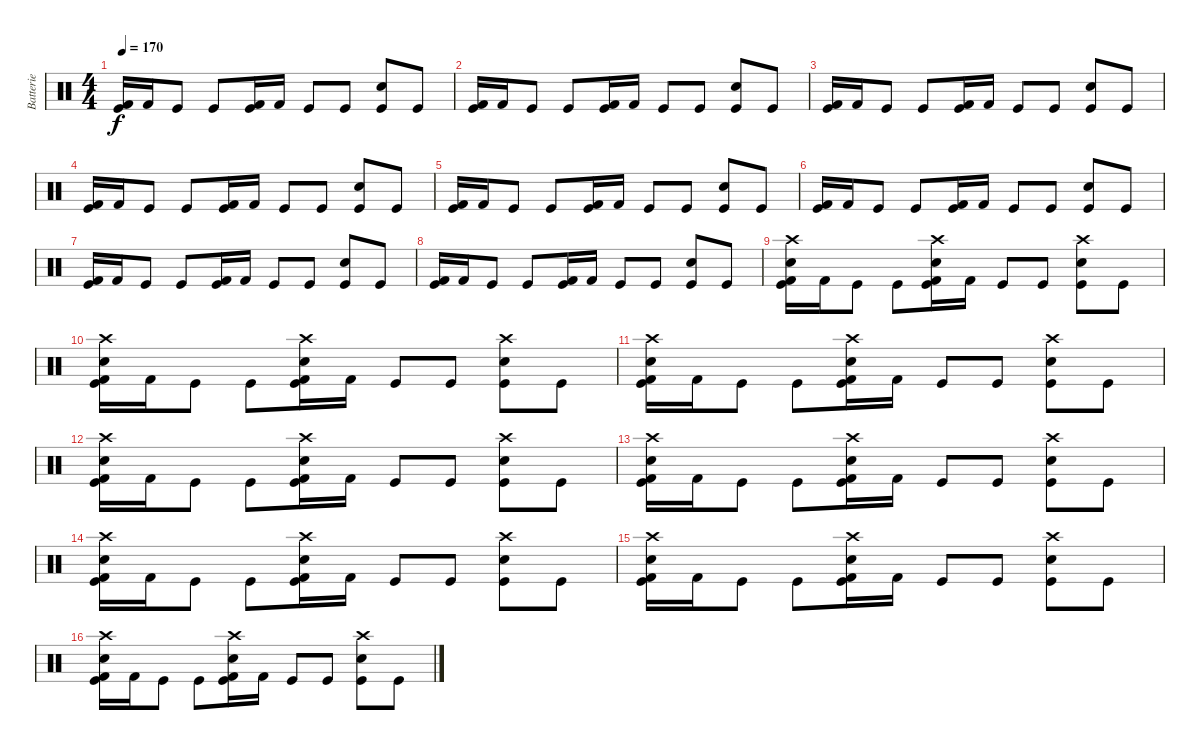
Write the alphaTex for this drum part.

\track ("Batterie" "Batterie") {instrument percussion}
\staff {score}
\articulation defaults
\ts (4 4)
\tempo 170
\clef neutral
\ks c
("Kick (hit) 2" "Kick (hit)").16{dy f} "Kick (hit) 2".16 "Kick (hit)".8 "Kick (hit)".8 ("Kick (hit) 2" "Kick (hit)").16 "Kick (hit) 2".16 "Kick (hit)".8 "Kick (hit)".8 ("Snare (hit) 2" "Kick (hit)").8 "Kick (hit)".8 |
("Kick (hit) 2" "Kick (hit)").16 "Kick (hit) 2".16 "Kick (hit)".8 "Kick (hit)".8 ("Kick (hit) 2" "Kick (hit)").16 "Kick (hit) 2".16 "Kick (hit)".8 "Kick (hit)".8 ("Snare (hit) 2" "Kick (hit)").8 "Kick (hit)".8 |
("Kick (hit) 2" "Kick (hit)").16 "Kick (hit) 2".16 "Kick (hit)".8 "Kick (hit)".8 ("Kick (hit) 2" "Kick (hit)").16 "Kick (hit) 2".16 "Kick (hit)".8 "Kick (hit)".8 ("Snare (hit) 2" "Kick (hit)").8 "Kick (hit)".8 |
("Kick (hit) 2" "Kick (hit)").16 "Kick (hit) 2".16 "Kick (hit)".8 "Kick (hit)".8 ("Kick (hit) 2" "Kick (hit)").16 "Kick (hit) 2".16 "Kick (hit)".8 "Kick (hit)".8 ("Snare (hit) 2" "Kick (hit)").8 "Kick (hit)".8 |
("Kick (hit) 2" "Kick (hit)").16 "Kick (hit) 2".16 "Kick (hit)".8 "Kick (hit)".8 ("Kick (hit) 2" "Kick (hit)").16 "Kick (hit) 2".16 "Kick (hit)".8 "Kick (hit)".8 ("Snare (hit) 2" "Kick (hit)").8 "Kick (hit)".8 |
("Kick (hit) 2" "Kick (hit)").16 "Kick (hit) 2".16 "Kick (hit)".8 "Kick (hit)".8 ("Kick (hit) 2" "Kick (hit)").16 "Kick (hit) 2".16 "Kick (hit)".8 "Kick (hit)".8 ("Snare (hit) 2" "Kick (hit)").8 "Kick (hit)".8 |
("Kick (hit) 2" "Kick (hit)").16 "Kick (hit) 2".16 "Kick (hit)".8 "Kick (hit)".8 ("Kick (hit) 2" "Kick (hit)").16 "Kick (hit) 2".16 "Kick (hit)".8 "Kick (hit)".8 ("Snare (hit) 2" "Kick (hit)").8 "Kick (hit)".8 |
("Kick (hit) 2" "Kick (hit)").16 "Kick (hit) 2".16 "Kick (hit)".8 "Kick (hit)".8 ("Kick (hit) 2" "Kick (hit)").16 "Kick (hit) 2".16 "Kick (hit)".8 "Kick (hit)".8 ("Snare (hit) 2" "Kick (hit)").8 "Kick (hit)".8 |
("Kick (hit) 2" "Snare (hit) 2" "Crash high (hit)" "Kick (hit)").16 "Kick (hit) 2".16 "Kick (hit)".8 "Kick (hit)".8 ("Kick (hit) 2" "Snare (hit) 2" "Crash high (hit)" "Kick (hit)").16 "Kick (hit) 2".16 "Kick (hit)".8 "Kick (hit)".8 ("Snare (hit) 2" "Crash high (hit)" "Kick (hit)").8 "Kick (hit)".8 |
("Kick (hit) 2" "Snare (hit) 2" "Crash high (hit)" "Kick (hit)").16 "Kick (hit) 2".16 "Kick (hit)".8 "Kick (hit)".8 ("Kick (hit) 2" "Snare (hit) 2" "Crash high (hit)" "Kick (hit)").16 "Kick (hit) 2".16 "Kick (hit)".8 "Kick (hit)".8 ("Snare (hit) 2" "Crash high (hit)" "Kick (hit)").8 "Kick (hit)".8 |
("Kick (hit) 2" "Snare (hit) 2" "Crash high (hit)" "Kick (hit)").16 "Kick (hit) 2".16 "Kick (hit)".8 "Kick (hit)".8 ("Kick (hit) 2" "Snare (hit) 2" "Crash high (hit)" "Kick (hit)").16 "Kick (hit) 2".16 "Kick (hit)".8 "Kick (hit)".8 ("Snare (hit) 2" "Crash high (hit)" "Kick (hit)").8 "Kick (hit)".8 |
("Kick (hit) 2" "Snare (hit) 2" "Crash high (hit)" "Kick (hit)").16 "Kick (hit) 2".16 "Kick (hit)".8 "Kick (hit)".8 ("Kick (hit) 2" "Snare (hit) 2" "Crash high (hit)" "Kick (hit)").16 "Kick (hit) 2".16 "Kick (hit)".8 "Kick (hit)".8 ("Snare (hit) 2" "Crash high (hit)" "Kick (hit)").8 "Kick (hit)".8 |
("Kick (hit) 2" "Snare (hit) 2" "Crash high (hit)" "Kick (hit)").16 "Kick (hit) 2".16 "Kick (hit)".8 "Kick (hit)".8 ("Kick (hit) 2" "Snare (hit) 2" "Crash high (hit)" "Kick (hit)").16 "Kick (hit) 2".16 "Kick (hit)".8 "Kick (hit)".8 ("Snare (hit) 2" "Crash high (hit)" "Kick (hit)").8 "Kick (hit)".8 |
("Kick (hit) 2" "Snare (hit) 2" "Crash high (hit)" "Kick (hit)").16 "Kick (hit) 2".16 "Kick (hit)".8 "Kick (hit)".8 ("Kick (hit) 2" "Snare (hit) 2" "Crash high (hit)" "Kick (hit)").16 "Kick (hit) 2".16 "Kick (hit)".8 "Kick (hit)".8 ("Snare (hit) 2" "Crash high (hit)" "Kick (hit)").8 "Kick (hit)".8 |
("Kick (hit) 2" "Snare (hit) 2" "Crash high (hit)" "Kick (hit)").16 "Kick (hit) 2".16 "Kick (hit)".8 "Kick (hit)".8 ("Kick (hit) 2" "Snare (hit) 2" "Crash high (hit)" "Kick (hit)").16 "Kick (hit) 2".16 "Kick (hit)".8 "Kick (hit)".8 ("Snare (hit) 2" "Crash high (hit)" "Kick (hit)").8 "Kick (hit)".8 |
("Kick (hit) 2" "Snare (hit) 2" "Crash high (hit)" "Kick (hit)").16 "Kick (hit) 2".16 "Kick (hit)".8 "Kick (hit)".8 ("Kick (hit) 2" "Snare (hit) 2" "Crash high (hit)" "Kick (hit)").16 "Kick (hit) 2".16 "Kick (hit)".8 "Kick (hit)".8 ("Snare (hit) 2" "Crash high (hit)" "Kick (hit)").8 "Kick (hit)".8
